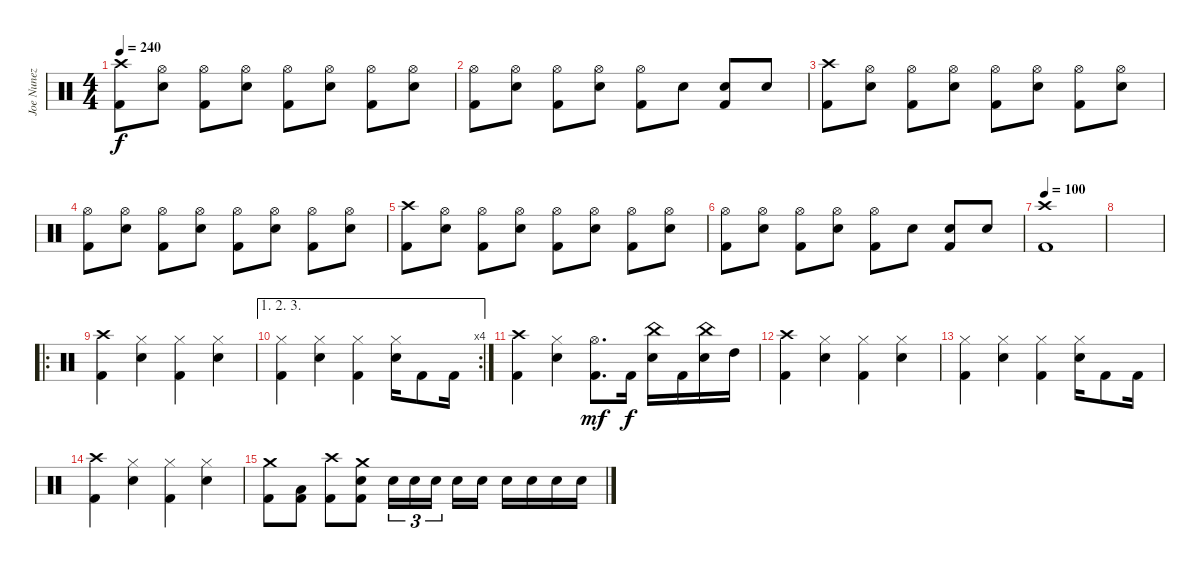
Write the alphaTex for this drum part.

\track ("Joe Nunez" "Joe Nunez") {instrument percussion}
\staff {score}
\articulation defaults
\ts (4 4)
\tempo 240
\clef neutral
\ks c
("Crash high (hit)" "Kick (hit) 2").8{dy f} ("Hi-Hat (open)" "Electric Snare (hit)").8 ("Hi-Hat (open)" "Kick (hit) 2").8 ("Hi-Hat (open)" "Electric Snare (hit)").8 ("Hi-Hat (open)" "Kick (hit) 2").8 ("Hi-Hat (open)" "Electric Snare (hit)").8 ("Hi-Hat (open)" "Kick (hit) 2").8 ("Hi-Hat (open)" "Electric Snare (hit)").8 |
("Hi-Hat (open)" "Kick (hit) 2").8 ("Hi-Hat (open)" "Electric Snare (hit)").8 ("Hi-Hat (open)" "Kick (hit) 2").8 ("Hi-Hat (open)" "Electric Snare (hit)").8 ("Hi-Hat (open)" "Kick (hit) 2").8 "Electric Snare (hit)".8 ("Electric Snare (hit)" "Kick (hit) 2").8 "Electric Snare (hit)".8 |
("Crash high (hit)" "Kick (hit) 2").8 ("Hi-Hat (open)" "Electric Snare (hit)").8 ("Hi-Hat (open)" "Kick (hit) 2").8 ("Hi-Hat (open)" "Electric Snare (hit)").8 ("Hi-Hat (open)" "Kick (hit) 2").8 ("Hi-Hat (open)" "Electric Snare (hit)").8 ("Hi-Hat (open)" "Kick (hit) 2").8 ("Hi-Hat (open)" "Electric Snare (hit)").8 |
("Hi-Hat (open)" "Kick (hit) 2").8 ("Hi-Hat (open)" "Electric Snare (hit)").8 ("Hi-Hat (open)" "Kick (hit) 2").8 ("Hi-Hat (open)" "Electric Snare (hit)").8 ("Hi-Hat (open)" "Kick (hit) 2").8 ("Hi-Hat (open)" "Electric Snare (hit)").8 ("Hi-Hat (open)" "Kick (hit) 2").8 ("Hi-Hat (open)" "Electric Snare (hit)").8 |
("Crash high (hit)" "Kick (hit) 2").8 ("Hi-Hat (open)" "Electric Snare (hit)").8 ("Hi-Hat (open)" "Kick (hit) 2").8 ("Hi-Hat (open)" "Electric Snare (hit)").8 ("Hi-Hat (open)" "Kick (hit) 2").8 ("Hi-Hat (open)" "Electric Snare (hit)").8 ("Hi-Hat (open)" "Kick (hit) 2").8 ("Hi-Hat (open)" "Electric Snare (hit)").8 |
("Hi-Hat (open)" "Kick (hit) 2").8 ("Hi-Hat (open)" "Electric Snare (hit)").8 ("Hi-Hat (open)" "Kick (hit) 2").8 ("Hi-Hat (open)" "Electric Snare (hit)").8 ("Hi-Hat (open)" "Kick (hit) 2").8 "Electric Snare (hit)".8 ("Electric Snare (hit)" "Kick (hit) 2").8 "Electric Snare (hit)".8 |
\tempo 100
("Crash high (hit)" "Kick (hit) 2").1 |
|
\ro
("Crash high (hit)" "Kick (hit) 2").4 ("Hi-Hat (closed)" "Electric Snare (hit)").4 ("Hi-Hat (closed)" "Kick (hit) 2").4 ("Hi-Hat (closed)" "Electric Snare (hit)").4 |
\ae (1 2 3)
\rc 4
("Hi-Hat (closed)" "Kick (hit) 2").4 ("Hi-Hat (closed)" "Electric Snare (hit)").4 ("Hi-Hat (closed)" "Kick (hit) 2").4 ("Hi-Hat (closed)" "Electric Snare (hit)").16 "Kick (hit) 2".8 "Kick (hit) 2".16 |
("Crash high (hit)" "Kick (hit) 2").4 ("Hi-Hat (closed)" "Electric Snare (hit)").4 ("Hi-Hat (open)" "Kick (hit) 2").8{d dy mf} "Kick (hit) 2".16{dy f} ("China (hit)" "Electric Snare (hit)").16 "Kick (hit) 2".16 ("China (hit)" "Electric Snare (hit)").16 "High Tom (hit)".16 |
("Crash high (hit)" "Kick (hit) 2").4 ("Hi-Hat (closed)" "Electric Snare (hit)").4 ("Hi-Hat (closed)" "Kick (hit) 2").4 ("Hi-Hat (closed)" "Electric Snare (hit)").4 |
("Hi-Hat (closed)" "Kick (hit) 2").4 ("Hi-Hat (closed)" "Electric Snare (hit)").4 ("Hi-Hat (closed)" "Kick (hit) 2").4 ("Hi-Hat (closed)" "Electric Snare (hit)").16 "Kick (hit) 2".8 "Kick (hit) 2".16 |
("Crash high (hit)" "Kick (hit) 2").4 ("Hi-Hat (closed)" "Electric Snare (hit)").4 ("Hi-Hat (closed)" "Kick (hit) 2").4 ("Hi-Hat (closed)" "Electric Snare (hit)").4 |
("Crash medium (hit)" "Kick (hit) 2").8 ("Low Tom (hit)" "Kick (hit) 2").8 ("Crash high (hit)" "Kick (hit) 2").8 ("Crash medium (hit)" "Electric Snare (hit)" "Kick (hit) 2").8 "Electric Snare (hit)".16{tu (3 2)} "Electric Snare (hit)".16{tu (3 2)} "Electric Snare (hit)".16{tu (3 2) beam splitsecondary} "Electric Snare (hit)".16 "Electric Snare (hit)".16 "Electric Snare (hit)".16 "Electric Snare (hit)".16 "Electric Snare (hit)".16 "Electric Snare (hit)".16
